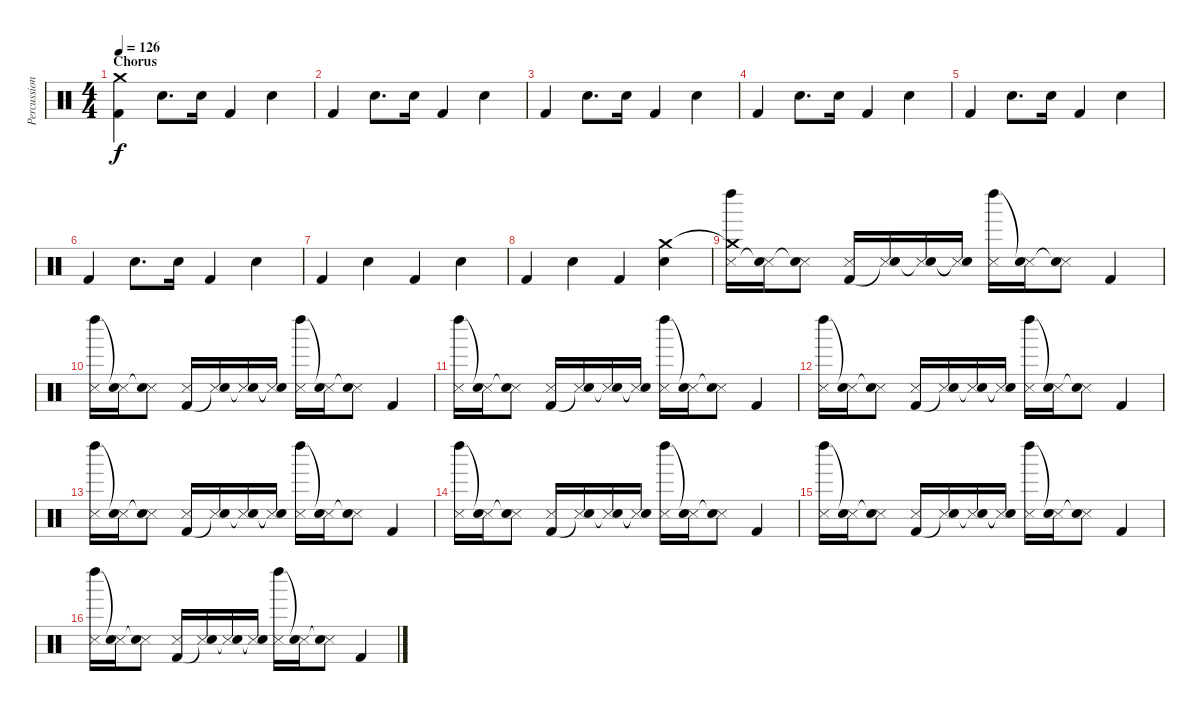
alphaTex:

\track ("Percussion" "Percussion") {instrument percussion}
\staff {score}
\articulation defaults
\ts (4 4)
\section ("" "Chorus")
\tempo 126
\clef neutral
\ks c
("Crash medium (hit)" "Kick (hit) 2").4{dy f} "Electric Snare (hit)".8{d} "Electric Snare (hit)".16 "Kick (hit) 2".4 "Electric Snare (hit)".4 |
"Kick (hit) 2".4 "Electric Snare (hit)".8{d} "Electric Snare (hit)".16 "Kick (hit) 2".4 "Electric Snare (hit)".4 |
"Kick (hit) 2".4 "Electric Snare (hit)".8{d} "Electric Snare (hit)".16 "Kick (hit) 2".4 "Electric Snare (hit)".4 |
"Kick (hit) 2".4 "Electric Snare (hit)".8{d} "Electric Snare (hit)".16 "Kick (hit) 2".4 "Electric Snare (hit)".4 |
"Kick (hit) 2".4 "Electric Snare (hit)".8{d} "Electric Snare (hit)".16 "Kick (hit) 2".4 "Electric Snare (hit)".4 |
"Kick (hit) 2".4 "Electric Snare (hit)".8{d} "Electric Snare (hit)".16 "Kick (hit) 2".4 "Electric Snare (hit)".4 |
"Kick (hit) 2".4 "Electric Snare (hit)".4 "Kick (hit) 2".4 "Electric Snare (hit)".4 |
"Kick (hit) 2".4 "Electric Snare (hit)".4 "Kick (hit) 2".4 ("Crash medium (hit)" "Electric Snare (hit)").4 |
("Crash medium (hit)"{t} "Metronome (hit)" "Left Maraca (hit)").16 ("Metronome (hit)" "Snare (hit)"{t}).16 ("Metronome (hit)" "Snare (hit)"{t}).8 ("Metronome (hit)" "Kick (hit) 2").16 ("Metronome (hit)" "Snare (hit)"{t}).16 ("Metronome (hit)" "Snare (hit)"{t}).16 ("Metronome (hit)"{t} "Snare (hit)"{t}).16 ("Metronome (hit)" "Left Maraca (hit)").16 ("Metronome (hit)" "Snare (hit)"{t}).16 ("Metronome (hit)" "Snare (hit)"{t}).8 "Kick (hit) 2".4 |
("Metronome (hit)" "Left Maraca (hit)").16 ("Metronome (hit)" "Snare (hit)"{t}).16 ("Metronome (hit)" "Snare (hit)"{t}).8 ("Metronome (hit)" "Kick (hit) 2").16 ("Metronome (hit)" "Snare (hit)"{t}).16 ("Metronome (hit)" "Snare (hit)"{t}).16 ("Metronome (hit)"{t} "Snare (hit)"{t}).16 ("Metronome (hit)" "Left Maraca (hit)").16 ("Metronome (hit)" "Snare (hit)"{t}).16 ("Metronome (hit)" "Snare (hit)"{t}).8 "Kick (hit) 2".4 |
("Metronome (hit)" "Left Maraca (hit)").16 ("Metronome (hit)" "Snare (hit)"{t}).16 ("Metronome (hit)" "Snare (hit)"{t}).8 ("Metronome (hit)" "Kick (hit) 2").16 ("Metronome (hit)" "Snare (hit)"{t}).16 ("Metronome (hit)" "Snare (hit)"{t}).16 ("Metronome (hit)"{t} "Snare (hit)"{t}).16 ("Metronome (hit)" "Left Maraca (hit)").16 ("Metronome (hit)" "Snare (hit)"{t}).16 ("Metronome (hit)" "Snare (hit)"{t}).8 "Kick (hit) 2".4 |
("Metronome (hit)" "Left Maraca (hit)").16 ("Metronome (hit)" "Snare (hit)"{t}).16 ("Metronome (hit)" "Snare (hit)"{t}).8 ("Metronome (hit)" "Kick (hit) 2").16 ("Metronome (hit)" "Snare (hit)"{t}).16 ("Metronome (hit)" "Snare (hit)"{t}).16 ("Metronome (hit)"{t} "Snare (hit)"{t}).16 ("Metronome (hit)" "Left Maraca (hit)").16 ("Metronome (hit)" "Snare (hit)"{t}).16 ("Metronome (hit)" "Snare (hit)"{t}).8 "Kick (hit) 2".4 |
("Metronome (hit)" "Left Maraca (hit)").16 ("Metronome (hit)" "Snare (hit)"{t}).16 ("Metronome (hit)" "Snare (hit)"{t}).8 ("Metronome (hit)" "Kick (hit) 2").16 ("Metronome (hit)" "Snare (hit)"{t}).16 ("Metronome (hit)" "Snare (hit)"{t}).16 ("Metronome (hit)"{t} "Snare (hit)"{t}).16 ("Metronome (hit)" "Left Maraca (hit)").16 ("Metronome (hit)" "Snare (hit)"{t}).16 ("Metronome (hit)" "Snare (hit)"{t}).8 "Kick (hit) 2".4 |
("Metronome (hit)" "Left Maraca (hit)").16 ("Metronome (hit)" "Snare (hit)"{t}).16 ("Metronome (hit)" "Snare (hit)"{t}).8 ("Metronome (hit)" "Kick (hit) 2").16 ("Metronome (hit)" "Snare (hit)"{t}).16 ("Metronome (hit)" "Snare (hit)"{t}).16 ("Metronome (hit)"{t} "Snare (hit)"{t}).16 ("Metronome (hit)" "Left Maraca (hit)").16 ("Metronome (hit)" "Snare (hit)"{t}).16 ("Metronome (hit)" "Snare (hit)"{t}).8 "Kick (hit) 2".4 |
("Metronome (hit)" "Left Maraca (hit)").16 ("Metronome (hit)" "Snare (hit)"{t}).16 ("Metronome (hit)" "Snare (hit)"{t}).8 ("Metronome (hit)" "Kick (hit) 2").16 ("Metronome (hit)" "Snare (hit)"{t}).16 ("Metronome (hit)" "Snare (hit)"{t}).16 ("Metronome (hit)"{t} "Snare (hit)"{t}).16 ("Metronome (hit)" "Left Maraca (hit)").16 ("Metronome (hit)" "Snare (hit)"{t}).16 ("Metronome (hit)" "Snare (hit)"{t}).8 "Kick (hit) 2".4 |
("Metronome (hit)" "Left Maraca (hit)").16 ("Metronome (hit)" "Snare (hit)"{t}).16 ("Metronome (hit)" "Snare (hit)"{t}).8 ("Metronome (hit)" "Kick (hit) 2").16 ("Metronome (hit)" "Snare (hit)"{t}).16 ("Metronome (hit)" "Snare (hit)"{t}).16 ("Metronome (hit)"{t} "Snare (hit)"{t}).16 ("Metronome (hit)" "Left Maraca (hit)").16 ("Metronome (hit)" "Snare (hit)"{t}).16 ("Metronome (hit)" "Snare (hit)"{t}).8 "Kick (hit) 2".4
